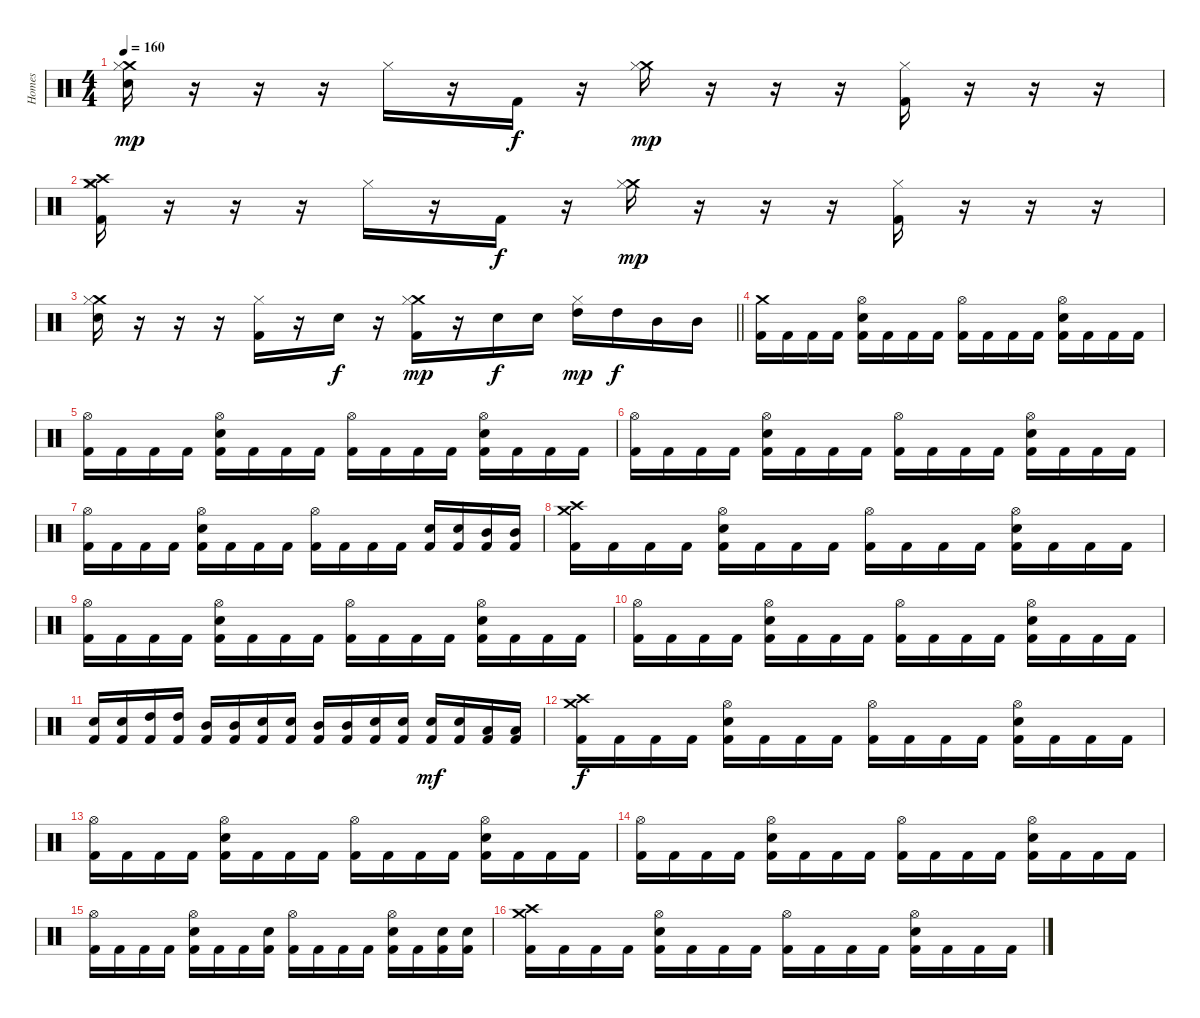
\track ("Homes" "Homes") {instrument percussion}
\staff {score}
\articulation defaults
\ts (4 4)
\tempo 160
\clef neutral
\ks c
("Crash medium (hit)" "Hi-Hat (closed)" "Electric Snare (hit)").16{dy mp} r.16 r.16 r.16 "Hi-Hat (closed)".16 r.16 "Kick (hit) 2".16{dy f} r.16 ("Crash medium (hit)" "Hi-Hat (closed)").16{dy mp} r.16 r.16 r.16 ("Hi-Hat (closed)" "Kick (hit) 2").16 r.16 r.16 r.16 |
("Crash medium (hit)" "Crash high (hit)" "Hi-Hat (closed)" "Kick (hit) 2").16 r.16 r.16 r.16 "Hi-Hat (closed)".16 r.16 "Kick (hit) 2".16{dy f} r.16 ("Crash medium (hit)" "Hi-Hat (closed)").16{dy mp} r.16 r.16 r.16 ("Hi-Hat (closed)" "Kick (hit) 2").16 r.16 r.16 r.16 |
\barLineRight lightlight
("Crash medium (hit)" "Hi-Hat (closed)" "Electric Snare (hit)").16 r.16 r.16 r.16 ("Hi-Hat (closed)" "Kick (hit) 2").16 r.16 "Electric Snare (hit)".16{dy f} r.16 ("Crash medium (hit)" "Hi-Hat (closed)" "Kick (hit) 2").16{dy mp} r.16 "Electric Snare (hit)".16{dy f} "Electric Snare (hit)".16 ("Hi-Hat (closed)" "High Tom (hit)").16{dy mp} "High Tom (hit)".16{dy f} "Mid Tom (hit)".16 "Mid Tom (hit)".16 |
("Crash medium (hit)" "Kick (hit) 2").16 "Kick (hit) 2".16 "Kick (hit) 2".16 "Kick (hit) 2".16 ("Hi-Hat (open)" "Electric Snare (hit)" "Kick (hit) 2").16 "Kick (hit) 2".16 "Kick (hit) 2".16 "Kick (hit) 2".16 ("Hi-Hat (open)" "Kick (hit) 2").16 "Kick (hit) 2".16 "Kick (hit) 2".16 "Kick (hit) 2".16 ("Hi-Hat (open)" "Electric Snare (hit)" "Kick (hit) 2").16 "Kick (hit) 2".16 "Kick (hit) 2".16 "Kick (hit) 2".16 |
("Hi-Hat (open)" "Kick (hit) 2").16 "Kick (hit) 2".16 "Kick (hit) 2".16 "Kick (hit) 2".16 ("Hi-Hat (open)" "Electric Snare (hit)" "Kick (hit) 2").16 "Kick (hit) 2".16 "Kick (hit) 2".16 "Kick (hit) 2".16 ("Hi-Hat (open)" "Kick (hit) 2").16 "Kick (hit) 2".16 "Kick (hit) 2".16 "Kick (hit) 2".16 ("Hi-Hat (open)" "Electric Snare (hit)" "Kick (hit) 2").16 "Kick (hit) 2".16 "Kick (hit) 2".16 "Kick (hit) 2".16 |
("Hi-Hat (open)" "Kick (hit) 2").16 "Kick (hit) 2".16 "Kick (hit) 2".16 "Kick (hit) 2".16 ("Hi-Hat (open)" "Electric Snare (hit)" "Kick (hit) 2").16 "Kick (hit) 2".16 "Kick (hit) 2".16 "Kick (hit) 2".16 ("Hi-Hat (open)" "Kick (hit) 2").16 "Kick (hit) 2".16 "Kick (hit) 2".16 "Kick (hit) 2".16 ("Hi-Hat (open)" "Electric Snare (hit)" "Kick (hit) 2").16 "Kick (hit) 2".16 "Kick (hit) 2".16 "Kick (hit) 2".16 |
("Hi-Hat (open)" "Kick (hit) 2").16 "Kick (hit) 2".16 "Kick (hit) 2".16 "Kick (hit) 2".16 ("Hi-Hat (open)" "Electric Snare (hit)" "Kick (hit) 2").16 "Kick (hit) 2".16 "Kick (hit) 2".16 "Kick (hit) 2".16 ("Hi-Hat (open)" "Kick (hit) 2").16 "Kick (hit) 2".16 "Kick (hit) 2".16 "Kick (hit) 2".16 ("Electric Snare (hit)" "Kick (hit) 2").16 ("Electric Snare (hit)" "Kick (hit) 2").16 ("Mid Tom (hit)" "Kick (hit) 2").16 ("Mid Tom (hit)" "Kick (hit) 2").16 |
("Crash medium (hit)" "Crash high (hit)" "Kick (hit) 2").16 "Kick (hit) 2".16 "Kick (hit) 2".16 "Kick (hit) 2".16 ("Hi-Hat (open)" "Electric Snare (hit)" "Kick (hit) 2").16 "Kick (hit) 2".16 "Kick (hit) 2".16 "Kick (hit) 2".16 ("Hi-Hat (open)" "Kick (hit) 2").16 "Kick (hit) 2".16 "Kick (hit) 2".16 "Kick (hit) 2".16 ("Hi-Hat (open)" "Electric Snare (hit)" "Kick (hit) 2").16 "Kick (hit) 2".16 "Kick (hit) 2".16 "Kick (hit) 2".16 |
("Hi-Hat (open)" "Kick (hit) 2").16 "Kick (hit) 2".16 "Kick (hit) 2".16 "Kick (hit) 2".16 ("Hi-Hat (open)" "Electric Snare (hit)" "Kick (hit) 2").16 "Kick (hit) 2".16 "Kick (hit) 2".16 "Kick (hit) 2".16 ("Hi-Hat (open)" "Kick (hit) 2").16 "Kick (hit) 2".16 "Kick (hit) 2".16 "Kick (hit) 2".16 ("Hi-Hat (open)" "Electric Snare (hit)" "Kick (hit) 2").16 "Kick (hit) 2".16 "Kick (hit) 2".16 "Kick (hit) 2".16 |
("Hi-Hat (open)" "Kick (hit) 2").16 "Kick (hit) 2".16 "Kick (hit) 2".16 "Kick (hit) 2".16 ("Hi-Hat (open)" "Electric Snare (hit)" "Kick (hit) 2").16 "Kick (hit) 2".16 "Kick (hit) 2".16 "Kick (hit) 2".16 ("Hi-Hat (open)" "Kick (hit) 2").16 "Kick (hit) 2".16 "Kick (hit) 2".16 "Kick (hit) 2".16 ("Hi-Hat (open)" "Electric Snare (hit)" "Kick (hit) 2").16 "Kick (hit) 2".16 "Kick (hit) 2".16 "Kick (hit) 2".16 |
("Electric Snare (hit)" "Kick (hit) 2").16 ("Electric Snare (hit)" "Kick (hit) 2").16 ("High Tom (hit)" "Kick (hit) 2").16 ("High Tom (hit)" "Kick (hit) 2").16 ("Mid Tom (hit)" "Kick (hit) 2").16 ("Mid Tom (hit)" "Kick (hit) 2").16 ("Electric Snare (hit)" "Kick (hit) 2").16 ("Electric Snare (hit)" "Kick (hit) 2").16 ("Mid Tom (hit)" "Kick (hit) 2").16 ("Mid Tom (hit)" "Kick (hit) 2").16 ("Electric Snare (hit)" "Kick (hit) 2").16 ("Electric Snare (hit)" "Kick (hit) 2").16 ("Electric Snare (hit)" "Kick (hit) 2").16{dy mf} ("Electric Snare (hit)" "Kick (hit) 2").16 ("Low Tom (hit)" "Kick (hit) 2").16 ("Low Tom (hit)" "Kick (hit) 2").16 |
("Crash medium (hit)" "Crash high (hit)" "Kick (hit) 2").16{dy f} "Kick (hit) 2".16 "Kick (hit) 2".16 "Kick (hit) 2".16 ("Hi-Hat (open)" "Electric Snare (hit)" "Kick (hit) 2").16 "Kick (hit) 2".16 "Kick (hit) 2".16 "Kick (hit) 2".16 ("Hi-Hat (open)" "Kick (hit) 2").16 "Kick (hit) 2".16 "Kick (hit) 2".16 "Kick (hit) 2".16 ("Hi-Hat (open)" "Electric Snare (hit)" "Kick (hit) 2").16 "Kick (hit) 2".16 "Kick (hit) 2".16 "Kick (hit) 2".16 |
("Hi-Hat (open)" "Kick (hit) 2").16 "Kick (hit) 2".16 "Kick (hit) 2".16 "Kick (hit) 2".16 ("Hi-Hat (open)" "Electric Snare (hit)" "Kick (hit) 2").16 "Kick (hit) 2".16 "Kick (hit) 2".16 "Kick (hit) 2".16 ("Hi-Hat (open)" "Kick (hit) 2").16 "Kick (hit) 2".16 "Kick (hit) 2".16 "Kick (hit) 2".16 ("Hi-Hat (open)" "Electric Snare (hit)" "Kick (hit) 2").16 "Kick (hit) 2".16 "Kick (hit) 2".16 "Kick (hit) 2".16 |
("Hi-Hat (open)" "Kick (hit) 2").16 "Kick (hit) 2".16 "Kick (hit) 2".16 "Kick (hit) 2".16 ("Hi-Hat (open)" "Electric Snare (hit)" "Kick (hit) 2").16 "Kick (hit) 2".16 "Kick (hit) 2".16 "Kick (hit) 2".16 ("Hi-Hat (open)" "Kick (hit) 2").16 "Kick (hit) 2".16 "Kick (hit) 2".16 "Kick (hit) 2".16 ("Hi-Hat (open)" "Electric Snare (hit)" "Kick (hit) 2").16 "Kick (hit) 2".16 "Kick (hit) 2".16 "Kick (hit) 2".16 |
("Hi-Hat (open)" "Kick (hit) 2").16 "Kick (hit) 2".16 "Kick (hit) 2".16 "Kick (hit) 2".16 ("Hi-Hat (open)" "Electric Snare (hit)" "Kick (hit) 2").16 "Kick (hit) 2".16 "Kick (hit) 2".16 ("Electric Snare (hit)" "Kick (hit) 2").16 ("Hi-Hat (open)" "Kick (hit) 2").16 "Kick (hit) 2".16 "Kick (hit) 2".16 "Kick (hit) 2".16 ("Hi-Hat (open)" "Electric Snare (hit)" "Kick (hit) 2").16 "Kick (hit) 2".16 ("Electric Snare (hit)" "Kick (hit) 2").16 ("Electric Snare (hit)" "Kick (hit) 2").16 |
("Crash medium (hit)" "Crash high (hit)" "Kick (hit) 2").16 "Kick (hit) 2".16 "Kick (hit) 2".16 "Kick (hit) 2".16 ("Hi-Hat (open)" "Electric Snare (hit)" "Kick (hit) 2").16 "Kick (hit) 2".16 "Kick (hit) 2".16 "Kick (hit) 2".16 ("Hi-Hat (open)" "Kick (hit) 2").16 "Kick (hit) 2".16 "Kick (hit) 2".16 "Kick (hit) 2".16 ("Hi-Hat (open)" "Electric Snare (hit)" "Kick (hit) 2").16 "Kick (hit) 2".16 "Kick (hit) 2".16 "Kick (hit) 2".16
